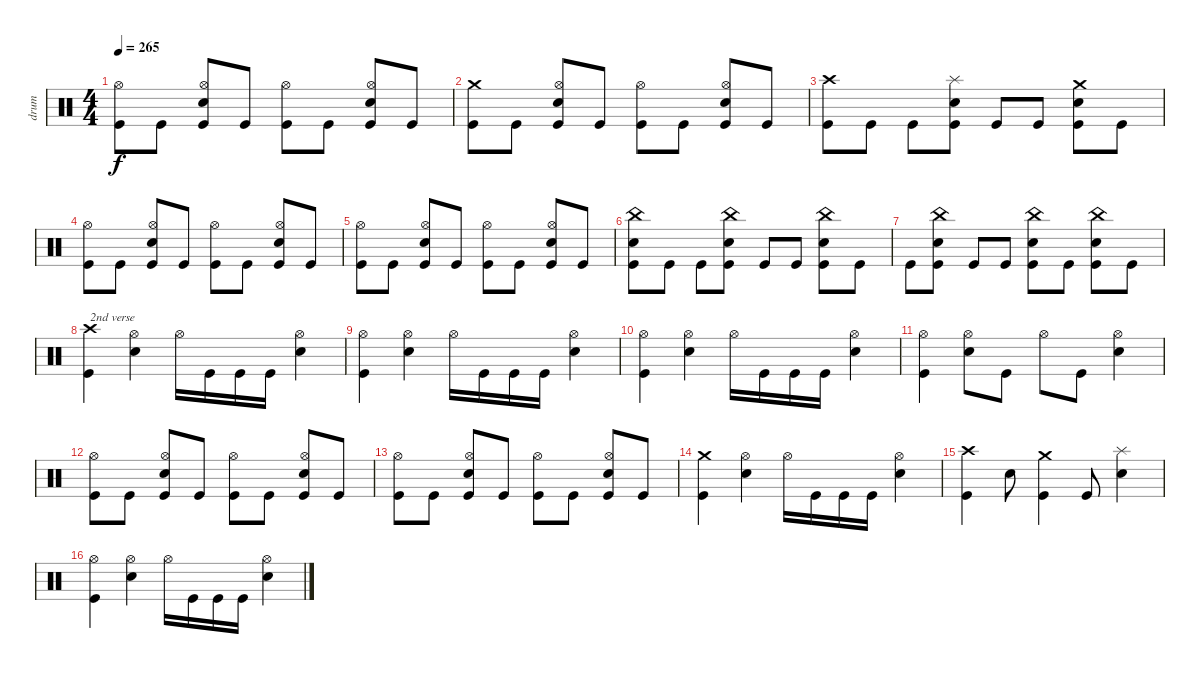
\track ("drum" "drum") {instrument percussion}
\staff {score}
\articulation defaults
\ts (4 4)
\tempo 265
\clef neutral
\ks c
("Kick (hit)" "Hi-Hat (open)").8{dy f} "Kick (hit)".8 ("Kick (hit)" "Electric Snare (hit)" "Hi-Hat (open)").8 "Kick (hit)".8 ("Kick (hit)" "Hi-Hat (open)").8 "Kick (hit)".8 ("Kick (hit)" "Electric Snare (hit)" "Hi-Hat (open)").8 "Kick (hit)".8 |
("Kick (hit)" "Crash medium (hit)").8 "Kick (hit)".8 ("Kick (hit)" "Electric Snare (hit)" "Hi-Hat (open)").8 "Kick (hit)".8 ("Kick (hit)" "Hi-Hat (open)").8 "Kick (hit)".8 ("Kick (hit)" "Electric Snare (hit)" "Hi-Hat (open)").8 "Kick (hit)".8 |
("Kick (hit)" "Crash high (hit)").8 "Kick (hit)".8 "Kick (hit)".8 ("Kick (hit)" "Electric Snare (hit)" "Splash (hit)").8 "Kick (hit)".8 "Kick (hit)".8 ("Kick (hit)" "Electric Snare (hit)" "Crash medium (hit)").8 "Kick (hit)".8 |
("Kick (hit)" "Hi-Hat (open)").8 "Kick (hit)".8 ("Kick (hit)" "Electric Snare (hit)" "Hi-Hat (open)").8 "Kick (hit)".8 ("Kick (hit)" "Hi-Hat (open)").8 "Kick (hit)".8 ("Kick (hit)" "Electric Snare (hit)" "Hi-Hat (open)").8 "Kick (hit)".8 |
("Kick (hit)" "Hi-Hat (open)").8 "Kick (hit)".8 ("Kick (hit)" "Electric Snare (hit)" "Hi-Hat (open)").8 "Kick (hit)".8 ("Kick (hit)" "Hi-Hat (open)").8 "Kick (hit)".8 ("Kick (hit)" "Electric Snare (hit)" "Hi-Hat (open)").8 "Kick (hit)".8 |
("Kick (hit)" "Electric Snare (hit)" "China (hit)").8 "Kick (hit)".8 "Kick (hit)".8 ("Kick (hit)" "Electric Snare (hit)" "China (hit)").8 "Kick (hit)".8 "Kick (hit)".8 ("Kick (hit)" "Electric Snare (hit)" "China (hit)").8 "Kick (hit)".8 |
"Kick (hit)".8 ("Kick (hit)" "Electric Snare (hit)" "China (hit)").8 "Kick (hit)".8 "Kick (hit)".8 ("Kick (hit)" "Electric Snare (hit)" "China (hit)").8 "Kick (hit)".8 ("Kick (hit)" "Electric Snare (hit)" "China (hit)").8 "Kick (hit)".8 |
("Kick (hit)" "Crash high (hit)").4{txt "2nd verse"} ("Electric Snare (hit)" "Hi-Hat (open)").4 "Hi-Hat (open)".16 "Kick (hit)".16 "Kick (hit)".16 "Kick (hit)".16 ("Electric Snare (hit)" "Hi-Hat (open)").4 |
("Kick (hit)" "Hi-Hat (open)").4 ("Electric Snare (hit)" "Hi-Hat (open)").4 "Hi-Hat (open)".16 "Kick (hit)".16 "Kick (hit)".16 "Kick (hit)".16 ("Electric Snare (hit)" "Hi-Hat (open)").4 |
("Kick (hit)" "Hi-Hat (open)").4 ("Electric Snare (hit)" "Hi-Hat (open)").4 "Hi-Hat (open)".16 "Kick (hit)".16 "Kick (hit)".16 "Kick (hit)".16 ("Electric Snare (hit)" "Hi-Hat (open)").4 |
("Kick (hit)" "Hi-Hat (open)").4 ("Electric Snare (hit)" "Hi-Hat (open)").8 "Kick (hit)".8 "Hi-Hat (open)".8 "Kick (hit)".8 ("Electric Snare (hit)" "Hi-Hat (open)").4 |
("Kick (hit)" "Hi-Hat (open)").8 "Kick (hit)".8 ("Kick (hit)" "Electric Snare (hit)" "Hi-Hat (open)").8 "Kick (hit)".8 ("Kick (hit)" "Hi-Hat (open)").8 "Kick (hit)".8 ("Kick (hit)" "Electric Snare (hit)" "Hi-Hat (open)").8 "Kick (hit)".8 |
("Kick (hit)" "Hi-Hat (open)").8 "Kick (hit)".8 ("Kick (hit)" "Electric Snare (hit)" "Hi-Hat (open)").8 "Kick (hit)".8 ("Kick (hit)" "Hi-Hat (open)").8 "Kick (hit)".8 ("Kick (hit)" "Electric Snare (hit)" "Hi-Hat (open)").8 "Kick (hit)".8 |
("Kick (hit)" "Crash medium (hit)").4 ("Electric Snare (hit)" "Hi-Hat (open)").4 "Hi-Hat (open)".16 "Kick (hit)".16 "Kick (hit)".16 "Kick (hit)".16 ("Electric Snare (hit)" "Hi-Hat (open)").4 |
("Kick (hit)" "Crash high (hit)").4 "Electric Snare (hit)".8 ("Kick (hit)" "Crash medium (hit)").4 "Kick (hit)".8 ("Electric Snare (hit)" "Splash (hit)").4 |
("Kick (hit)" "Hi-Hat (open)").4 ("Electric Snare (hit)" "Hi-Hat (open)").4 "Hi-Hat (open)".16 "Kick (hit)".16 "Kick (hit)".16 "Kick (hit)".16 ("Electric Snare (hit)" "Hi-Hat (open)").4
